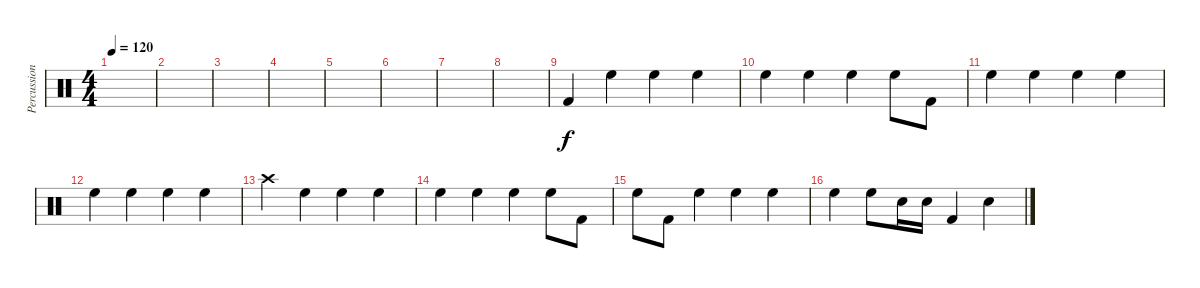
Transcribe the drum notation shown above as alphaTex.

\track ("Percussion" "Percussion") {instrument percussion}
\staff {score}
\articulation defaults
\ts (4 4)
\tempo 120
\clef neutral
\ks c
|
|
|
|
|
|
|
|
"Kick (hit) 2".4 "High Floor Tom (hit)".4 "High Floor Tom (hit)".4 "High Floor Tom (hit)".4 |
"High Floor Tom (hit)".4 "High Floor Tom (hit)".4 "High Floor Tom (hit)".4 "High Floor Tom (hit)".8 "Kick (hit) 2".8 |
"High Floor Tom (hit)".4 "High Floor Tom (hit)".4 "High Floor Tom (hit)".4 "High Floor Tom (hit)".4 |
"High Floor Tom (hit)".4 "High Floor Tom (hit)".4 "High Floor Tom (hit)".4 "High Floor Tom (hit)".4 |
"Crash high (hit)".4 "High Floor Tom (hit)".4 "High Floor Tom (hit)".4 "High Floor Tom (hit)".4 |
"High Floor Tom (hit)".4 "High Floor Tom (hit)".4 "High Floor Tom (hit)".4 "High Floor Tom (hit)".8 "Kick (hit) 2".8 |
"High Floor Tom (hit)".8 "Kick (hit) 2".8 "High Floor Tom (hit)".4 "High Floor Tom (hit)".4 "High Floor Tom (hit)".4 |
"High Floor Tom (hit)".4 "High Floor Tom (hit)".8 "Electric Snare (hit)".16 "Electric Snare (hit)".16 "Kick (hit) 2".4 "Electric Snare (hit)".4
